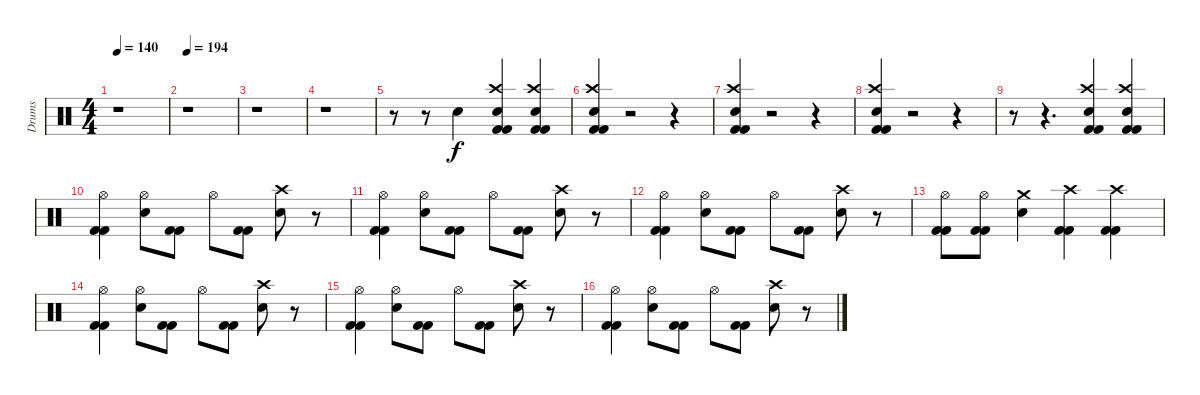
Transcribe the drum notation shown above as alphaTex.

\track ("Drums" "Drums") {instrument percussion}
\staff {score}
\articulation defaults
\ts (4 4)
\tempo 140
\clef neutral
\ks c
r.1{dy f} |
\tempo 194
r.1 |
r.1 |
r.1 |
r.8 r.8 "Electric Snare (hit)".4 ("Crash high (hit)" "Electric Snare (hit)" "Kick (hit) 2" "Kick (hit) 2").4 ("Crash high (hit)" "Electric Snare (hit)" "Kick (hit) 2" "Kick (hit) 2").4 |
("Crash high (hit)" "Electric Snare (hit)" "Kick (hit) 2" "Kick (hit) 2").4 r.2 r.4 |
("Crash high (hit)" "Electric Snare (hit)" "Kick (hit) 2" "Kick (hit) 2").4 r.2 r.4 |
("Crash high (hit)" "Electric Snare (hit)" "Kick (hit) 2" "Kick (hit) 2").4 r.2 r.4 |
r.8 r.4{d} ("Crash high (hit)" "Electric Snare (hit)" "Kick (hit) 2" "Kick (hit) 2").4 ("Crash high (hit)" "Electric Snare (hit)" "Kick (hit) 2" "Kick (hit) 2").4 |
("Hi-Hat (open)" "Kick (hit) 2" "Kick (hit) 2").4 ("Hi-Hat (open)" "Electric Snare (hit)").8 ("Kick (hit) 2" "Kick (hit) 2").8 "Hi-Hat (open)".8 ("Kick (hit) 2" "Kick (hit) 2").8 ("Crash high (hit)" "Electric Snare (hit)").8 r.8 |
("Hi-Hat (open)" "Kick (hit) 2" "Kick (hit) 2").4 ("Hi-Hat (open)" "Electric Snare (hit)").8 ("Kick (hit) 2" "Kick (hit) 2").8 "Hi-Hat (open)".8 ("Kick (hit) 2" "Kick (hit) 2").8 ("Crash high (hit)" "Electric Snare (hit)").8 r.8 |
("Hi-Hat (open)" "Kick (hit) 2" "Kick (hit) 2").4 ("Hi-Hat (open)" "Electric Snare (hit)").8 ("Kick (hit) 2" "Kick (hit) 2").8 "Hi-Hat (open)".8 ("Kick (hit) 2" "Kick (hit) 2").8 ("Crash high (hit)" "Electric Snare (hit)").8 r.8 |
("Hi-Hat (open)" "Kick (hit) 2" "Kick (hit) 2").8 ("Hi-Hat (open)" "Kick (hit) 2" "Kick (hit) 2").8 ("Crash medium (hit)" "Electric Snare (hit)").4 ("Crash high (hit)" "Kick (hit) 2" "Kick (hit) 2").4 ("Crash high (hit)" "Kick (hit) 2" "Kick (hit) 2").4 |
("Hi-Hat (open)" "Kick (hit) 2" "Kick (hit) 2").4 ("Hi-Hat (open)" "Electric Snare (hit)").8 ("Kick (hit) 2" "Kick (hit) 2").8 "Hi-Hat (open)".8 ("Kick (hit) 2" "Kick (hit) 2").8 ("Crash high (hit)" "Electric Snare (hit)").8 r.8 |
("Hi-Hat (open)" "Kick (hit) 2" "Kick (hit) 2").4 ("Hi-Hat (open)" "Electric Snare (hit)").8 ("Kick (hit) 2" "Kick (hit) 2").8 "Hi-Hat (open)".8 ("Kick (hit) 2" "Kick (hit) 2").8 ("Crash high (hit)" "Electric Snare (hit)").8 r.8 |
("Hi-Hat (open)" "Kick (hit) 2" "Kick (hit) 2").4 ("Hi-Hat (open)" "Electric Snare (hit)").8 ("Kick (hit) 2" "Kick (hit) 2").8 "Hi-Hat (open)".8 ("Kick (hit) 2" "Kick (hit) 2").8 ("Crash high (hit)" "Electric Snare (hit)").8 r.8
